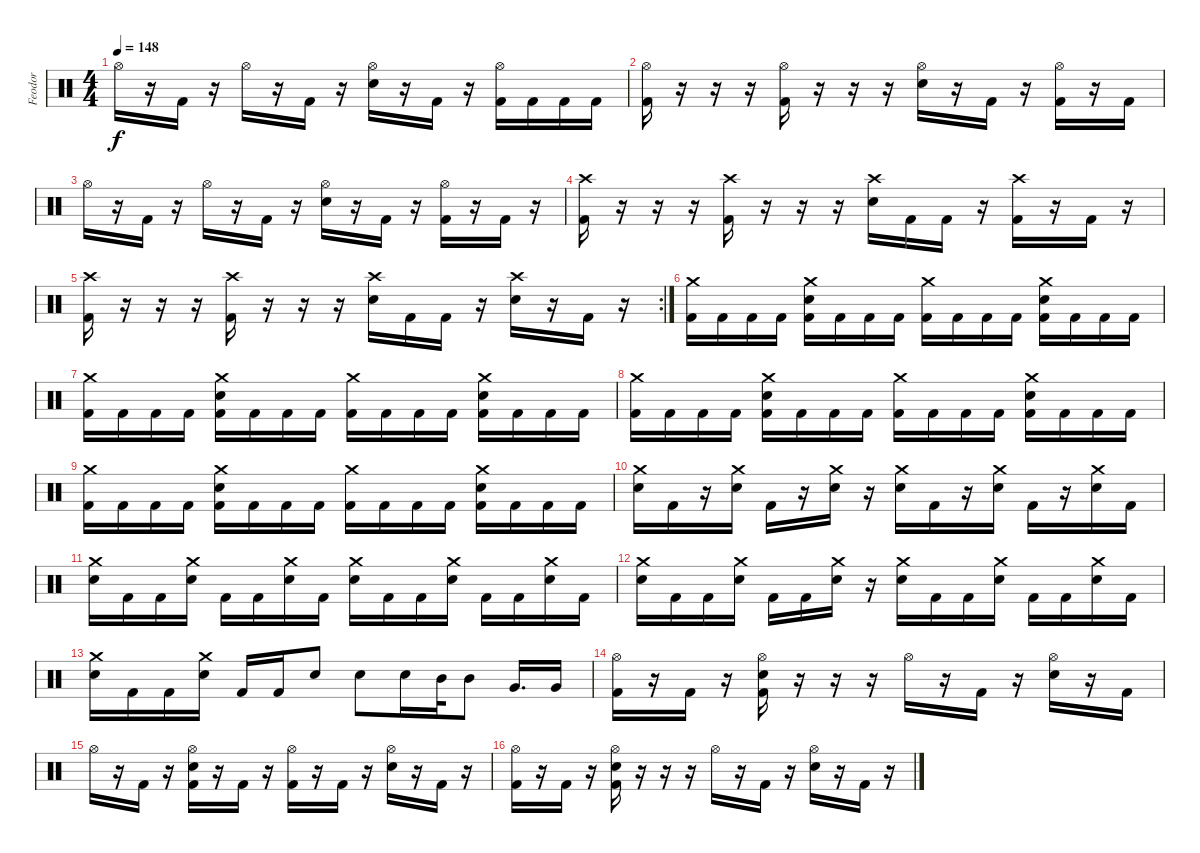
\track ("Feodor" "Feodor") {instrument percussion}
\staff {score}
\articulation defaults
\ts (4 4)
\tempo 148
\clef neutral
\ks c "Hi-Hat (open)".16{dy f}
r.16 "Kick (hit) 2".16 r.16 "Hi-Hat (open)".16 r.16 "Kick (hit) 2".16 r.16 ("Electric Snare (hit)" "Hi-Hat (open)").16 r.16 "Kick (hit) 2".16 r.16 ("Kick (hit) 2" "Hi-Hat (open)").16 "Kick (hit) 2".16 "Kick (hit) 2".16 "Kick (hit) 2".16 |
("Hi-Hat (open)" "Kick (hit) 2").16 r.16 r.16 r.16 ("Hi-Hat (open)" "Kick (hit) 2").16 r.16 r.16 r.16 ("Hi-Hat (open)" "Electric Snare (hit)").16 r.16 "Kick (hit) 2".16 r.16 ("Kick (hit) 2" "Hi-Hat (open)").16 r.16 "Kick (hit) 2".16 |
"Hi-Hat (open)".16 r.16 "Kick (hit) 2".16 r.16 "Hi-Hat (open)".16 r.16 "Kick (hit) 2".16 r.16 ("Electric Snare (hit)" "Hi-Hat (open)").16 r.16 "Kick (hit) 2".16 r.16 ("Kick (hit) 2" "Hi-Hat (open)").16 r.16 "Kick (hit) 2".16 r.16 |
("Crash high (hit)" "Kick (hit) 2").16 r.16 r.16 r.16 ("Crash high (hit)" "Kick (hit) 2").16 r.16 r.16 r.16 ("Crash high (hit)" "Electric Snare (hit)").16 "Kick (hit) 2".16 "Kick (hit) 2".16 r.16 ("Kick (hit) 2" "Crash high (hit)").16 r.16 "Kick (hit) 2".16 r.16 |
\rc 2
("Crash high (hit)" "Kick (hit) 2").16 r.16 r.16 r.16 ("Crash high (hit)" "Kick (hit) 2").16 r.16 r.16 r.16 ("Crash high (hit)" "Electric Snare (hit)").16 "Kick (hit) 2".16 "Kick (hit) 2".16 r.16 ("Electric Snare (hit)" "Crash high (hit)").16 r.16 "Kick (hit) 2".16 r.16 |
("Kick (hit) 2" "Crash medium (hit)").16 "Kick (hit) 2".16 "Kick (hit) 2".16 "Kick (hit) 2".16 ("Electric Snare (hit)" "Kick (hit) 2" "Crash medium (hit)").16 "Kick (hit) 2".16 "Kick (hit) 2".16 "Kick (hit) 2".16 ("Crash medium (hit)" "Kick (hit) 2").16 "Kick (hit) 2".16 "Kick (hit) 2".16 "Kick (hit) 2".16 ("Crash medium (hit)" "Kick (hit) 2" "Electric Snare (hit)").16 "Kick (hit) 2".16 "Kick (hit) 2".16 "Kick (hit) 2".16 |
("Kick (hit) 2" "Crash medium (hit)").16 "Kick (hit) 2".16 "Kick (hit) 2".16 "Kick (hit) 2".16 ("Electric Snare (hit)" "Kick (hit) 2" "Crash medium (hit)").16 "Kick (hit) 2".16 "Kick (hit) 2".16 "Kick (hit) 2".16 ("Crash medium (hit)" "Kick (hit) 2").16 "Kick (hit) 2".16 "Kick (hit) 2".16 "Kick (hit) 2".16 ("Crash medium (hit)" "Kick (hit) 2" "Electric Snare (hit)").16 "Kick (hit) 2".16 "Kick (hit) 2".16 "Kick (hit) 2".16 |
("Kick (hit) 2" "Crash medium (hit)").16 "Kick (hit) 2".16 "Kick (hit) 2".16 "Kick (hit) 2".16 ("Electric Snare (hit)" "Kick (hit) 2" "Crash medium (hit)").16 "Kick (hit) 2".16 "Kick (hit) 2".16 "Kick (hit) 2".16 ("Crash medium (hit)" "Kick (hit) 2").16 "Kick (hit) 2".16 "Kick (hit) 2".16 "Kick (hit) 2".16 ("Crash medium (hit)" "Kick (hit) 2" "Electric Snare (hit)").16 "Kick (hit) 2".16 "Kick (hit) 2".16 "Kick (hit) 2".16 |
("Kick (hit) 2" "Crash medium (hit)").16 "Kick (hit) 2".16 "Kick (hit) 2".16 "Kick (hit) 2".16 ("Electric Snare (hit)" "Kick (hit) 2" "Crash medium (hit)").16 "Kick (hit) 2".16 "Kick (hit) 2".16 "Kick (hit) 2".16 ("Crash medium (hit)" "Kick (hit) 2").16 "Kick (hit) 2".16 "Kick (hit) 2".16 "Kick (hit) 2".16 ("Crash medium (hit)" "Kick (hit) 2" "Electric Snare (hit)").16 "Kick (hit) 2".16 "Kick (hit) 2".16 "Kick (hit) 2".16 |
("Electric Snare (hit)" "Crash medium (hit)").16 "Kick (hit) 2".16 r.16 ("Electric Snare (hit)" "Crash medium (hit)").16 "Kick (hit) 2".16 r.16 ("Crash medium (hit)" "Electric Snare (hit)").16 r.16 ("Crash medium (hit)" "Electric Snare (hit)").16 "Kick (hit) 2".16 r.16 ("Crash medium (hit)" "Electric Snare (hit)").16 "Kick (hit) 2".16 r.16 ("Crash medium (hit)" "Electric Snare (hit)").16 "Kick (hit) 2".16 |
("Electric Snare (hit)" "Crash medium (hit)").16 "Kick (hit) 2".16 "Kick (hit) 2".16 ("Electric Snare (hit)" "Crash medium (hit)").16 "Kick (hit) 2".16 "Kick (hit) 2".16 ("Crash medium (hit)" "Electric Snare (hit)").16 "Kick (hit) 2".16 ("Crash medium (hit)" "Electric Snare (hit)").16 "Kick (hit) 2".16 "Kick (hit) 2".16 ("Crash medium (hit)" "Electric Snare (hit)").16 "Kick (hit) 2".16 "Kick (hit) 2".16 ("Crash medium (hit)" "Electric Snare (hit)").16 "Kick (hit) 2".16 |
("Electric Snare (hit)" "Crash medium (hit)").16 "Kick (hit) 2".16 "Kick (hit) 2".16 ("Electric Snare (hit)" "Crash medium (hit)").16 "Kick (hit) 2".16 "Kick (hit) 2".16 ("Crash medium (hit)" "Electric Snare (hit)").16 r.16 ("Crash medium (hit)" "Electric Snare (hit)").16 "Kick (hit) 2".16 "Kick (hit) 2".16 ("Crash medium (hit)" "Electric Snare (hit)").16 "Kick (hit) 2".16 "Kick (hit) 2".16 ("Crash medium (hit)" "Electric Snare (hit)").16 "Kick (hit) 2".16 |
("Electric Snare (hit)" "Crash medium (hit)").16 "Kick (hit) 2".16 "Kick (hit) 2".16 ("Electric Snare (hit)" "Crash medium (hit)").16 "Kick (hit) 2".16 "Kick (hit) 2".16 "Electric Snare (hit)".8 "Electric Snare (hit)".8 "Electric Snare (hit)".16 "Mid Tom (hit)".32 "Mid Tom (hit)".8 "Very Low Tom (hit)".16{d} "Very Low Tom (hit)".16 |
("Hi-Hat (open)" "Kick (hit) 2").16 r.16 "Kick (hit) 2".16 r.16 ("Hi-Hat (open)" "Electric Snare (hit)" "Kick (hit) 2").16 r.16 r.16 r.16 "Hi-Hat (open)".16 r.16 "Kick (hit) 2".16 r.16 ("Electric Snare (hit)" "Hi-Hat (open)").16 r.16 "Kick (hit) 2".16 |
"Hi-Hat (open)".16 r.16 "Kick (hit) 2".16 r.16 ("Electric Snare (hit)" "Kick (hit) 2" "Hi-Hat (open)").16 r.16 "Kick (hit) 2".16 r.16 ("Kick (hit) 2" "Hi-Hat (open)").16 r.16 "Kick (hit) 2".16 r.16 ("Electric Snare (hit)" "Hi-Hat (open)").16 r.16 "Kick (hit) 2".16 r.16 |
("Hi-Hat (open)" "Kick (hit) 2").16 r.16 "Kick (hit) 2".16 r.16 ("Hi-Hat (open)" "Electric Snare (hit)" "Kick (hit) 2").16 r.16 r.16 r.16 "Hi-Hat (open)".16 r.16 "Kick (hit) 2".16 r.16 ("Electric Snare (hit)" "Hi-Hat (open)").16 r.16 "Kick (hit) 2".16 r.16
